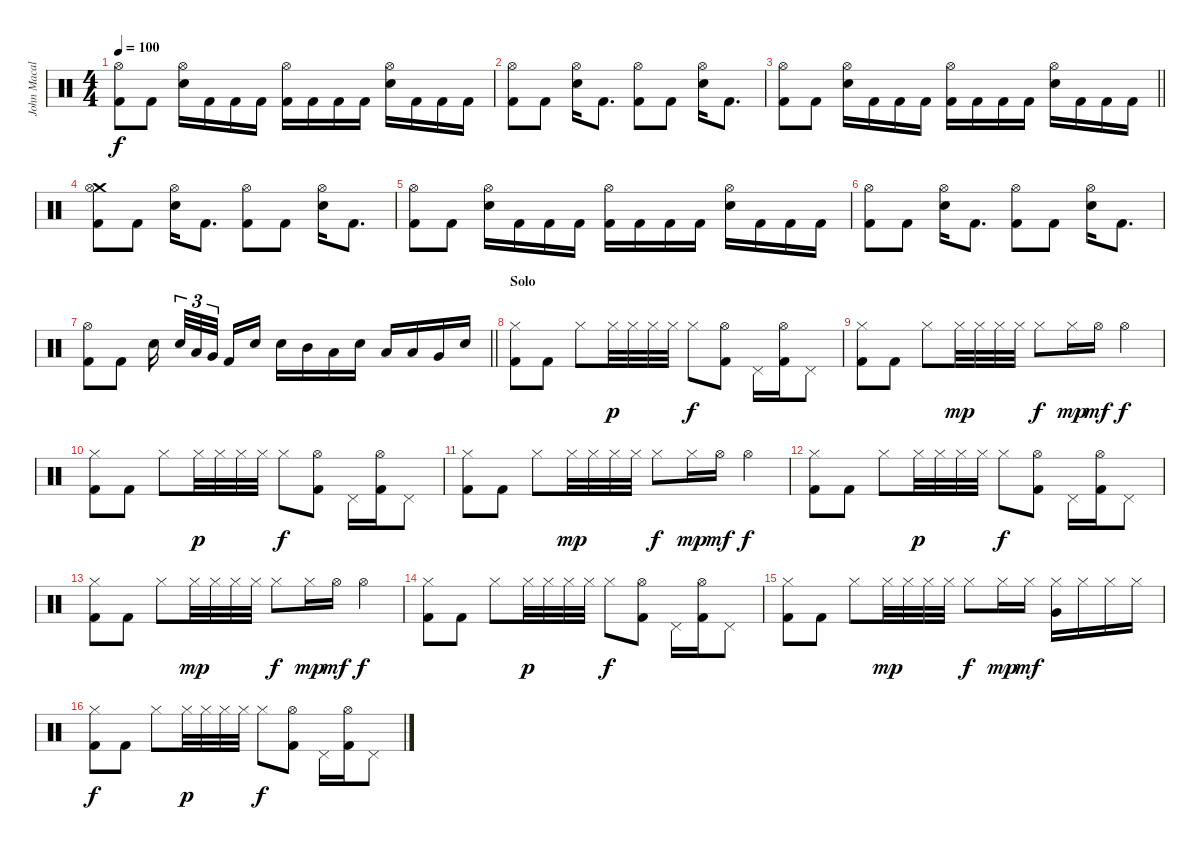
\track ("John Macaluso" "John Macal") {instrument percussion}
\staff {score}
\articulation defaults
\ts (4 4)
\tempo 100
\clef neutral
\ks c
("Hi-Hat (open)" "Kick (hit) 2").8{dy f} "Kick (hit) 2".8 ("Hi-Hat (open)" "Snare (hit) 2").16 "Kick (hit) 2".16 "Kick (hit) 2".16 "Kick (hit) 2".16 ("Hi-Hat (open)" "Kick (hit) 2").16 "Kick (hit) 2".16 "Kick (hit) 2".16 "Kick (hit) 2".16 ("Hi-Hat (open)" "Snare (hit) 2").16 "Kick (hit) 2".16 "Kick (hit) 2".16 "Kick (hit) 2".16 |
("Hi-Hat (open)" "Kick (hit) 2").8 "Kick (hit) 2".8 ("Hi-Hat (open)" "Snare (hit) 2").16 "Kick (hit) 2".8{d} ("Hi-Hat (open)" "Kick (hit) 2").8 "Kick (hit) 2".8 ("Hi-Hat (open)" "Snare (hit) 2").16 "Kick (hit) 2".8{d} |
\barLineRight lightlight
("Hi-Hat (open)" "Kick (hit) 2").8 "Kick (hit) 2".8 ("Hi-Hat (open)" "Snare (hit) 2").16 "Kick (hit) 2".16 "Kick (hit) 2".16 "Kick (hit) 2".16 ("Hi-Hat (open)" "Kick (hit) 2").16 "Kick (hit) 2".16 "Kick (hit) 2".16 "Kick (hit) 2".16 ("Hi-Hat (open)" "Snare (hit) 2").16 "Kick (hit) 2".16 "Kick (hit) 2".16 "Kick (hit) 2".16 |
("Crash medium (hit)" "Hi-Hat (open)" "Kick (hit) 2").8 "Kick (hit) 2".8 ("Hi-Hat (open)" "Snare (hit) 2").16 "Kick (hit) 2".8{d} ("Hi-Hat (open)" "Kick (hit) 2").8 "Kick (hit) 2".8 ("Hi-Hat (open)" "Snare (hit) 2").16 "Kick (hit) 2".8{d} |
("Hi-Hat (open)" "Kick (hit) 2").8 "Kick (hit) 2".8 ("Hi-Hat (open)" "Snare (hit) 2").16 "Kick (hit) 2".16 "Kick (hit) 2".16 "Kick (hit) 2".16 ("Hi-Hat (open)" "Kick (hit) 2").16 "Kick (hit) 2".16 "Kick (hit) 2".16 "Kick (hit) 2".16 ("Hi-Hat (open)" "Snare (hit) 2").16 "Kick (hit) 2".16 "Kick (hit) 2".16 "Kick (hit) 2".16 |
("Hi-Hat (open)" "Kick (hit) 2").8 "Kick (hit) 2".8 ("Hi-Hat (open)" "Snare (hit) 2").16 "Kick (hit) 2".8{d} ("Hi-Hat (open)" "Kick (hit) 2").8 "Kick (hit) 2".8 ("Hi-Hat (open)" "Snare (hit) 2").16 "Kick (hit) 2".8{d} |
\barLineRight lightlight
("Hi-Hat (open)" "Kick (hit) 2").8 "Kick (hit) 2".8 "Snare (hit) 2".16{beam splitsecondary} "Snare (hit) 2".32{tu (3 2)} "Low Tom (hit)".32{tu (3 2)} "Very Low Tom (hit)".32{tu (3 2) beam splitsecondary} "Kick (hit) 2".16 "Snare (hit) 2".16 "Snare (hit) 2".16 "Mid Tom (hit)".16 "Low Tom (hit)".16 "Snare (hit) 2".16 "Low Tom (hit)".16 "Low Tom (hit)".16 "Very Low Tom (hit)".16 "Snare (hit) 2".16 |
\section ("" "Solo")
("Hi-Hat (closed)" "Kick (hit) 2").8 "Kick (hit) 2".8 "Hi-Hat (closed)".8 "Hi-Hat (closed)".32{dy p} "Hi-Hat (closed)".32 "Hi-Hat (closed)".32 "Hi-Hat (closed)".32 "Hi-Hat (closed)".8{dy f} ("Hi-Hat (open)" "Kick (hit) 2").8 "Pedal Hi-Hat (hit)".16 ("Hi-Hat (open)" "Kick (hit) 2").16 "Pedal Hi-Hat (hit)".8 |
("Hi-Hat (closed)" "Kick (hit) 2").8 "Kick (hit) 2".8 "Hi-Hat (closed)".8 "Hi-Hat (closed)".32{dy mp} "Hi-Hat (closed)".32 "Hi-Hat (closed)".32 "Hi-Hat (closed)".32 "Hi-Hat (closed)".8{dy f} "Hi-Hat (closed)".16{dy mp} "Hi-Hat (open)".16{dy mf} "Hi-Hat (open)".4{dy f} |
("Hi-Hat (closed)" "Kick (hit) 2").8 "Kick (hit) 2".8 "Hi-Hat (closed)".8 "Hi-Hat (closed)".32{dy p} "Hi-Hat (closed)".32 "Hi-Hat (closed)".32 "Hi-Hat (closed)".32 "Hi-Hat (closed)".8{dy f} ("Hi-Hat (open)" "Kick (hit) 2").8 "Pedal Hi-Hat (hit)".16 ("Hi-Hat (open)" "Kick (hit) 2").16 "Pedal Hi-Hat (hit)".8 |
("Hi-Hat (closed)" "Kick (hit) 2").8 "Kick (hit) 2".8 "Hi-Hat (closed)".8 "Hi-Hat (closed)".32{dy mp} "Hi-Hat (closed)".32 "Hi-Hat (closed)".32 "Hi-Hat (closed)".32 "Hi-Hat (closed)".8{dy f} "Hi-Hat (closed)".16{dy mp} "Hi-Hat (open)".16{dy mf} "Hi-Hat (open)".4{dy f} |
("Hi-Hat (closed)" "Kick (hit) 2").8 "Kick (hit) 2".8 "Hi-Hat (closed)".8 "Hi-Hat (closed)".32{dy p} "Hi-Hat (closed)".32 "Hi-Hat (closed)".32 "Hi-Hat (closed)".32 "Hi-Hat (closed)".8{dy f} ("Hi-Hat (open)" "Kick (hit) 2").8 "Pedal Hi-Hat (hit)".16 ("Hi-Hat (open)" "Kick (hit) 2").16 "Pedal Hi-Hat (hit)".8 |
("Hi-Hat (closed)" "Kick (hit) 2").8 "Kick (hit) 2".8 "Hi-Hat (closed)".8 "Hi-Hat (closed)".32{dy mp} "Hi-Hat (closed)".32 "Hi-Hat (closed)".32 "Hi-Hat (closed)".32 "Hi-Hat (closed)".8{dy f} "Hi-Hat (closed)".16{dy mp} "Hi-Hat (open)".16{dy mf} "Hi-Hat (open)".4{dy f} |
("Hi-Hat (closed)" "Kick (hit) 2").8 "Kick (hit) 2".8 "Hi-Hat (closed)".8 "Hi-Hat (closed)".32{dy p} "Hi-Hat (closed)".32 "Hi-Hat (closed)".32 "Hi-Hat (closed)".32 "Hi-Hat (closed)".8{dy f} ("Hi-Hat (open)" "Kick (hit) 2").8 "Pedal Hi-Hat (hit)".16 ("Hi-Hat (open)" "Kick (hit) 2").16 "Pedal Hi-Hat (hit)".8 |
("Hi-Hat (closed)" "Kick (hit) 2").8 "Kick (hit) 2".8 "Hi-Hat (closed)".8 "Hi-Hat (closed)".32{dy mp} "Hi-Hat (closed)".32 "Hi-Hat (closed)".32 "Hi-Hat (closed)".32 "Hi-Hat (closed)".8{dy f} "Hi-Hat (closed)".16{dy mp} "Hi-Hat (closed)".16{dy mf} ("Hi-Hat (closed)" "Very Low Tom (hit)").16 "Hi-Hat (closed)".16 "Hi-Hat (closed)".16 "Hi-Hat (closed)".16 |
("Hi-Hat (closed)" "Kick (hit) 2").8{dy f} "Kick (hit) 2".8 "Hi-Hat (closed)".8 "Hi-Hat (closed)".32{dy p} "Hi-Hat (closed)".32 "Hi-Hat (closed)".32 "Hi-Hat (closed)".32 "Hi-Hat (closed)".8{dy f} ("Hi-Hat (open)" "Kick (hit) 2").8 "Pedal Hi-Hat (hit)".16 ("Hi-Hat (open)" "Kick (hit) 2").16 "Pedal Hi-Hat (hit)".8
